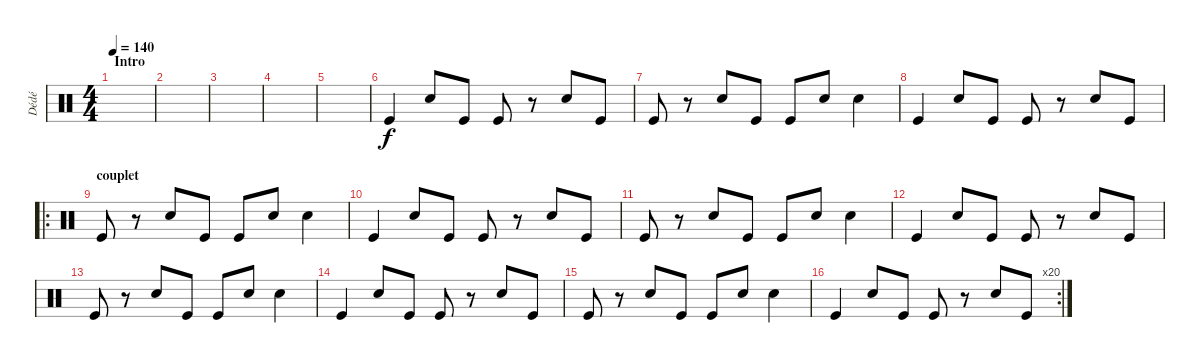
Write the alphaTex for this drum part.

\track ("Dédé" "Dédé") {instrument percussion}
\staff {score}
\articulation defaults
\ts (4 4)
\section ("" "Intro")
\tempo 140
\clef neutral
\ks c
|
|
|
|
|
"Kick (hit)".4 "Electric Snare (hit)".8 "Kick (hit)".8 "Kick (hit)".8 r.8 "Electric Snare (hit)".8 "Kick (hit)".8 |
"Kick (hit)".8 r.8 "Electric Snare (hit)".8 "Kick (hit)".8 "Kick (hit)".8 "Electric Snare (hit)".8 "Electric Snare (hit)".4 |
"Kick (hit)".4 "Electric Snare (hit)".8 "Kick (hit)".8 "Kick (hit)".8 r.8 "Electric Snare (hit)".8 "Kick (hit)".8 |
\ro
\section ("" "couplet")
"Kick (hit)".8 r.8 "Electric Snare (hit)".8 "Kick (hit)".8 "Kick (hit)".8 "Electric Snare (hit)".8 "Electric Snare (hit)".4 |
"Kick (hit)".4 "Electric Snare (hit)".8 "Kick (hit)".8 "Kick (hit)".8 r.8 "Electric Snare (hit)".8 "Kick (hit)".8 |
"Kick (hit)".8 r.8 "Electric Snare (hit)".8 "Kick (hit)".8 "Kick (hit)".8 "Electric Snare (hit)".8 "Electric Snare (hit)".4 |
"Kick (hit)".4 "Electric Snare (hit)".8 "Kick (hit)".8 "Kick (hit)".8 r.8 "Electric Snare (hit)".8 "Kick (hit)".8 |
"Kick (hit)".8 r.8 "Electric Snare (hit)".8 "Kick (hit)".8 "Kick (hit)".8 "Electric Snare (hit)".8 "Electric Snare (hit)".4 |
"Kick (hit)".4 "Electric Snare (hit)".8 "Kick (hit)".8 "Kick (hit)".8 r.8 "Electric Snare (hit)".8 "Kick (hit)".8 |
"Kick (hit)".8 r.8 "Electric Snare (hit)".8 "Kick (hit)".8 "Kick (hit)".8 "Electric Snare (hit)".8 "Electric Snare (hit)".4 |
\rc 20 "Kick (hit)".4 "Electric Snare (hit)".8 "Kick (hit)".8 "Kick (hit)".8
r.8 "Electric Snare (hit)".8 "Kick (hit)".8
